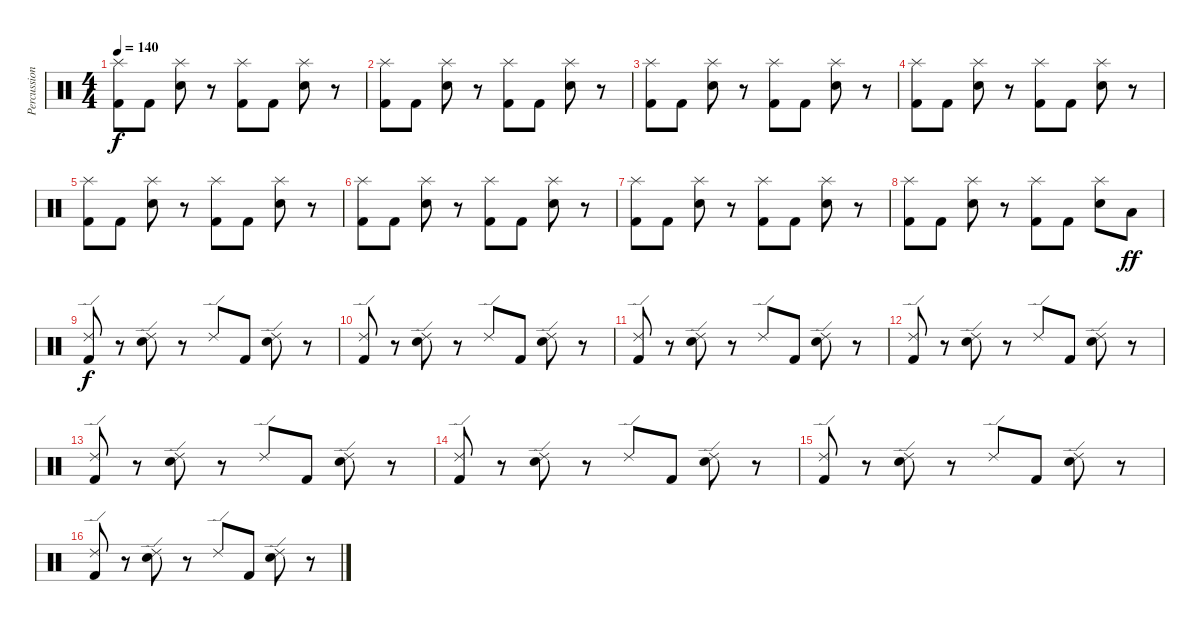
\track ("Percussion" "Percussion") {instrument percussion}
\staff {score}
\articulation defaults
\ts (4 4)
\tempo 140
\clef neutral
\ks c
("Splash (hit)" "Kick (hit) 2").8{dy f} "Kick (hit) 2".8 ("Splash (hit)" "Snare (hit) 2").8 r.8 ("Splash (hit)" "Kick (hit) 2").8 "Kick (hit) 2".8 ("Splash (hit)" "Snare (hit) 2").8 r.8 |
("Splash (hit)" "Kick (hit) 2").8 "Kick (hit) 2".8 ("Splash (hit)" "Snare (hit) 2").8 r.8 ("Splash (hit)" "Kick (hit) 2").8 "Kick (hit) 2".8 ("Splash (hit)" "Snare (hit) 2").8 r.8 |
("Splash (hit)" "Kick (hit) 2").8 "Kick (hit) 2".8 ("Splash (hit)" "Snare (hit) 2").8 r.8 ("Splash (hit)" "Kick (hit) 2").8 "Kick (hit) 2".8 ("Splash (hit)" "Snare (hit) 2").8 r.8 |
("Splash (hit)" "Kick (hit) 2").8 "Kick (hit) 2".8 ("Splash (hit)" "Snare (hit) 2").8 r.8 ("Splash (hit)" "Kick (hit) 2").8 "Kick (hit) 2".8 ("Splash (hit)" "Snare (hit) 2").8 r.8 |
("Splash (hit)" "Kick (hit) 2").8 "Kick (hit) 2".8 ("Splash (hit)" "Snare (hit) 2").8 r.8 ("Splash (hit)" "Kick (hit) 2").8 "Kick (hit) 2".8 ("Splash (hit)" "Snare (hit) 2").8 r.8 |
("Splash (hit)" "Kick (hit) 2").8 "Kick (hit) 2".8 ("Splash (hit)" "Snare (hit) 2").8 r.8 ("Splash (hit)" "Kick (hit) 2").8 "Kick (hit) 2".8 ("Splash (hit)" "Snare (hit) 2").8 r.8 |
("Splash (hit)" "Kick (hit) 2").8 "Kick (hit) 2".8 ("Splash (hit)" "Snare (hit) 2").8 r.8 ("Splash (hit)" "Kick (hit) 2").8 "Kick (hit) 2".8 ("Splash (hit)" "Snare (hit) 2").8 r.8 |
("Splash (hit)" "Kick (hit) 2").8 "Kick (hit) 2".8 ("Splash (hit)" "Snare (hit) 2").8 r.8 ("Splash (hit)" "Kick (hit) 2").8 "Kick (hit) 2".8 ("Splash (hit)" "Snare (hit) 2").8 "Low Tom (hit)".8{dy ff} |
("Ride (edge) 2" "Kick (hit) 2").8{dy f} r.8 ("Ride (edge) 2" "Snare (hit) 2").8 r.8 "Ride (edge) 2".8 "Kick (hit) 2".8 ("Ride (edge) 2" "Snare (hit) 2").8 r.8 |
("Ride (edge) 2" "Kick (hit) 2").8 r.8 ("Ride (edge) 2" "Snare (hit) 2").8 r.8 "Ride (edge) 2".8 "Kick (hit) 2".8 ("Ride (edge) 2" "Snare (hit) 2").8 r.8 |
("Ride (edge) 2" "Kick (hit) 2").8 r.8 ("Ride (edge) 2" "Snare (hit) 2").8 r.8 "Ride (edge) 2".8 "Kick (hit) 2".8 ("Ride (edge) 2" "Snare (hit) 2").8 r.8 |
("Ride (edge) 2" "Kick (hit) 2").8 r.8 ("Ride (edge) 2" "Snare (hit) 2").8 r.8 "Ride (edge) 2".8 "Kick (hit) 2".8 ("Ride (edge) 2" "Snare (hit) 2").8 r.8 |
("Ride (edge) 2" "Kick (hit) 2").8 r.8 ("Ride (edge) 2" "Snare (hit) 2").8 r.8 "Ride (edge) 2".8 "Kick (hit) 2".8 ("Ride (edge) 2" "Snare (hit) 2").8 r.8 |
("Ride (edge) 2" "Kick (hit) 2").8 r.8 ("Ride (edge) 2" "Snare (hit) 2").8 r.8 "Ride (edge) 2".8 "Kick (hit) 2".8 ("Ride (edge) 2" "Snare (hit) 2").8 r.8 |
("Ride (edge) 2" "Kick (hit) 2").8 r.8 ("Ride (edge) 2" "Snare (hit) 2").8 r.8 "Ride (edge) 2".8 "Kick (hit) 2".8 ("Ride (edge) 2" "Snare (hit) 2").8 r.8 |
("Ride (edge) 2" "Kick (hit) 2").8 r.8 ("Ride (edge) 2" "Snare (hit) 2").8 r.8 "Ride (edge) 2".8 "Kick (hit) 2".8 ("Ride (edge) 2" "Snare (hit) 2").8 r.8
